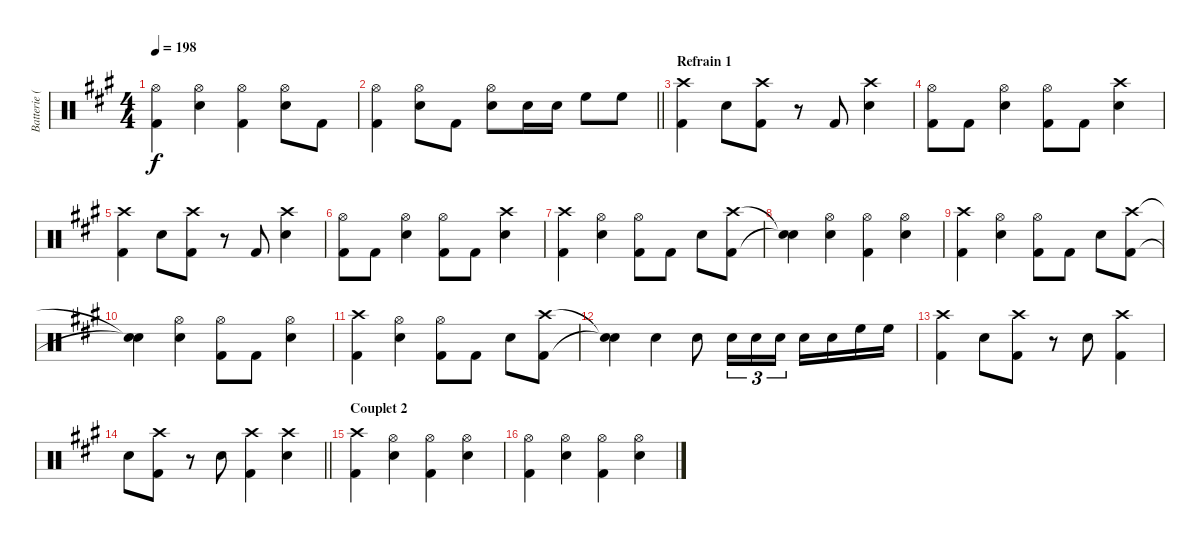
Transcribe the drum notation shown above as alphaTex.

\track ("Batterie (Phil Roud)" "Batterie (") {instrument percussion}
\staff {score}
\articulation defaults
\ts (4 4)
\tempo 198
\clef neutral
\ks a
("Hi-Hat (open)" "Kick (hit) 2").4{dy f} ("Hi-Hat (open)" "Snare (hit) 2").4 ("Hi-Hat (open)" "Kick (hit) 2").4 ("Hi-Hat (open)" "Snare (hit) 2").8 "Kick (hit) 2".8 |
\barLineRight lightlight
("Hi-Hat (open)" "Kick (hit) 2").4 ("Hi-Hat (open)" "Snare (hit) 2").8 "Kick (hit) 2".8 ("Hi-Hat (open)" "Snare (hit) 2").8 "Snare (hit) 2".16 "Snare (hit) 2".16 "High Floor Tom (hit)".8 "High Floor Tom (hit)".8 |
\section ("" "Refrain 1")
("Crash high (hit)" "Kick (hit) 2").4 "Snare (hit) 2".8 ("Crash high (hit)" "Kick (hit) 2").8 r.8 "Kick (hit) 2".8 ("Crash high (hit)" "Snare (hit) 2").4 |
("Hi-Hat (open)" "Kick (hit) 2").8 "Kick (hit) 2".8 ("Hi-Hat (open)" "Snare (hit) 2").4 ("Hi-Hat (open)" "Kick (hit) 2").8 "Kick (hit) 2".8 ("Crash high (hit)" "Snare (hit) 2").4 |
("Crash high (hit)" "Kick (hit) 2").4 "Snare (hit) 2".8 ("Crash high (hit)" "Kick (hit) 2").8 r.8 "Kick (hit) 2".8 ("Crash high (hit)" "Snare (hit) 2").4 |
("Hi-Hat (open)" "Kick (hit) 2").8 "Kick (hit) 2".8 ("Hi-Hat (open)" "Snare (hit) 2").4 ("Hi-Hat (open)" "Kick (hit) 2").8 "Kick (hit) 2".8 ("Crash high (hit)" "Snare (hit) 2").4 |
("Crash high (hit)" "Kick (hit) 2").4 ("Hi-Hat (open)" "Snare (hit) 2").4 ("Hi-Hat (open)" "Kick (hit) 2").8 "Kick (hit) 2".8 "Snare (hit) 2".8 ("Crash high (hit)" "Kick (hit) 2").8 |
("Snare (hit)"{t} "Snare (hit)"{t}).4 ("Hi-Hat (open)" "Snare (hit) 2").4 ("Hi-Hat (open)" "Kick (hit) 2").4 ("Hi-Hat (open)" "Snare (hit) 2").4 |
("Crash high (hit)" "Kick (hit) 2").4 ("Hi-Hat (open)" "Snare (hit) 2").4 ("Hi-Hat (open)" "Kick (hit) 2").8 "Kick (hit) 2".8 "Snare (hit) 2".8 ("Crash high (hit)" "Kick (hit) 2").8 |
("Snare (hit)"{t} "Snare (hit)"{t}).4 ("Hi-Hat (open)" "Snare (hit) 2").4 ("Hi-Hat (open)" "Kick (hit) 2").8 "Kick (hit) 2".8 ("Hi-Hat (open)" "Snare (hit) 2").4 |
("Crash high (hit)" "Kick (hit) 2").4 ("Hi-Hat (open)" "Snare (hit) 2").4 ("Hi-Hat (open)" "Kick (hit) 2").8 "Kick (hit) 2".8 "Snare (hit) 2".8 ("Crash high (hit)" "Kick (hit) 2").8 |
("Snare (hit)"{t} "Snare (hit)"{t}).4 "Snare (hit) 2".4 "Snare (hit) 2".8 "Snare (hit) 2".16{tu (3 2)} "Snare (hit) 2".16{tu (3 2)} "Snare (hit) 2".16{tu (3 2)} "Snare (hit) 2".16 "Snare (hit) 2".16 "High Floor Tom (hit)".16 "High Floor Tom (hit)".16 |
("Crash high (hit)" "Kick (hit) 2").4 "Snare (hit) 2".8 ("Crash high (hit)" "Kick (hit) 2").8 r.8 "Snare (hit) 2".8 ("Crash high (hit)" "Kick (hit) 2").4 |
\barLineRight lightlight "Snare (hit) 2".8
("Crash high (hit)" "Kick (hit) 2").8 r.8 "Snare (hit) 2".8 ("Crash high (hit)" "Kick (hit) 2").4 ("Crash high (hit)" "Snare (hit) 2").4 |
\section ("" "Couplet 2")
("Crash high (hit)" "Kick (hit) 2").4 ("Hi-Hat (open)" "Snare (hit) 2").4 ("Hi-Hat (open)" "Kick (hit) 2").4 ("Hi-Hat (open)" "Snare (hit) 2").4 |
("Hi-Hat (open)" "Kick (hit) 2").4 ("Hi-Hat (open)" "Snare (hit) 2").4 ("Hi-Hat (open)" "Kick (hit) 2").4 ("Hi-Hat (open)" "Snare (hit) 2").4
